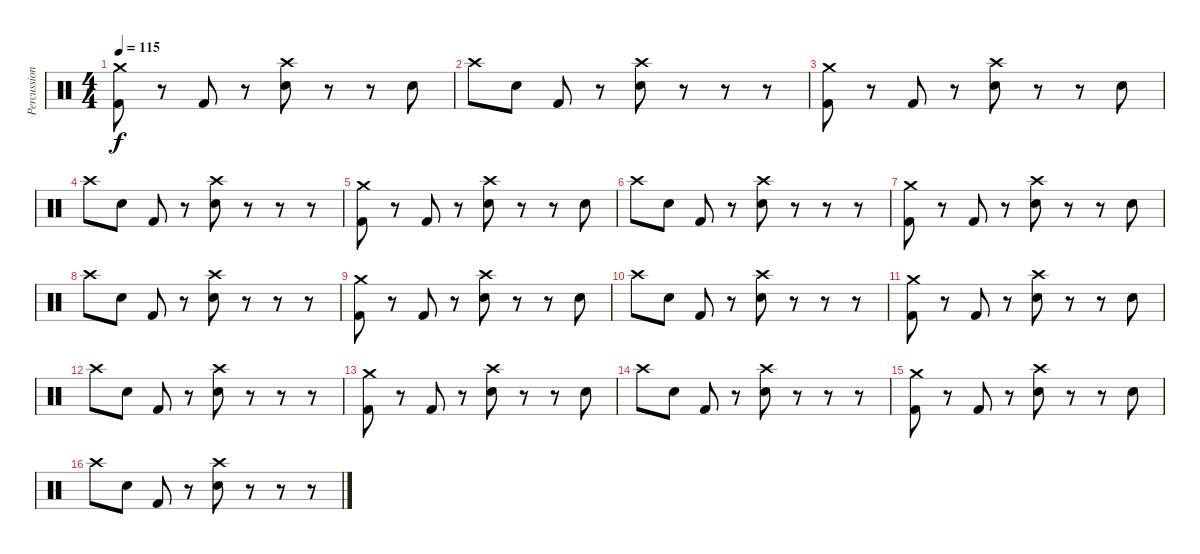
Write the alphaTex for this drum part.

\track ("Percussion" "Percussion") {instrument percussion}
\staff {score}
\articulation defaults
\ts (4 4)
\tempo 115
\clef neutral
\ks c
("Kick (hit) 2" "Crash medium (hit)").8{dy f} r.8 "Kick (hit) 2".8 r.8 ("Electric Snare (hit)" "Crash high (hit)").8 r.8 r.8 "Electric Snare (hit)".8 |
"Crash high (hit)".8 "Electric Snare (hit)".8 "Kick (hit) 2".8 r.8 ("Electric Snare (hit)" "Crash high (hit)").8 r.8 r.8 r.8 |
("Kick (hit) 2" "Crash medium (hit)").8 r.8 "Kick (hit) 2".8 r.8 ("Electric Snare (hit)" "Crash high (hit)").8 r.8 r.8 "Electric Snare (hit)".8 |
"Crash high (hit)".8 "Electric Snare (hit)".8 "Kick (hit) 2".8 r.8 ("Electric Snare (hit)" "Crash high (hit)").8 r.8 r.8 r.8 |
("Kick (hit) 2" "Crash medium (hit)").8 r.8 "Kick (hit) 2".8 r.8 ("Electric Snare (hit)" "Crash high (hit)").8 r.8 r.8 "Electric Snare (hit)".8 |
"Crash high (hit)".8 "Electric Snare (hit)".8 "Kick (hit) 2".8 r.8 ("Electric Snare (hit)" "Crash high (hit)").8 r.8 r.8 r.8 |
("Kick (hit) 2" "Crash medium (hit)").8 r.8 "Kick (hit) 2".8 r.8 ("Electric Snare (hit)" "Crash high (hit)").8 r.8 r.8 "Electric Snare (hit)".8 |
"Crash high (hit)".8 "Electric Snare (hit)".8 "Kick (hit) 2".8 r.8 ("Electric Snare (hit)" "Crash high (hit)").8 r.8 r.8 r.8 |
("Kick (hit) 2" "Crash medium (hit)").8 r.8 "Kick (hit) 2".8 r.8 ("Electric Snare (hit)" "Crash high (hit)").8 r.8 r.8 "Electric Snare (hit)".8 |
"Crash high (hit)".8 "Electric Snare (hit)".8 "Kick (hit) 2".8 r.8 ("Electric Snare (hit)" "Crash high (hit)").8 r.8 r.8 r.8 |
("Kick (hit) 2" "Crash medium (hit)").8 r.8 "Kick (hit) 2".8 r.8 ("Electric Snare (hit)" "Crash high (hit)").8 r.8 r.8 "Electric Snare (hit)".8 |
"Crash high (hit)".8 "Electric Snare (hit)".8 "Kick (hit) 2".8 r.8 ("Electric Snare (hit)" "Crash high (hit)").8 r.8 r.8 r.8 |
("Kick (hit) 2" "Crash medium (hit)").8 r.8 "Kick (hit) 2".8 r.8 ("Electric Snare (hit)" "Crash high (hit)").8 r.8 r.8 "Electric Snare (hit)".8 |
"Crash high (hit)".8 "Electric Snare (hit)".8 "Kick (hit) 2".8 r.8 ("Electric Snare (hit)" "Crash high (hit)").8 r.8 r.8 r.8 |
("Kick (hit) 2" "Crash medium (hit)").8 r.8 "Kick (hit) 2".8 r.8 ("Electric Snare (hit)" "Crash high (hit)").8 r.8 r.8 "Electric Snare (hit)".8 |
"Crash high (hit)".8 "Electric Snare (hit)".8 "Kick (hit) 2".8 r.8 ("Electric Snare (hit)" "Crash high (hit)").8 r.8 r.8 r.8
